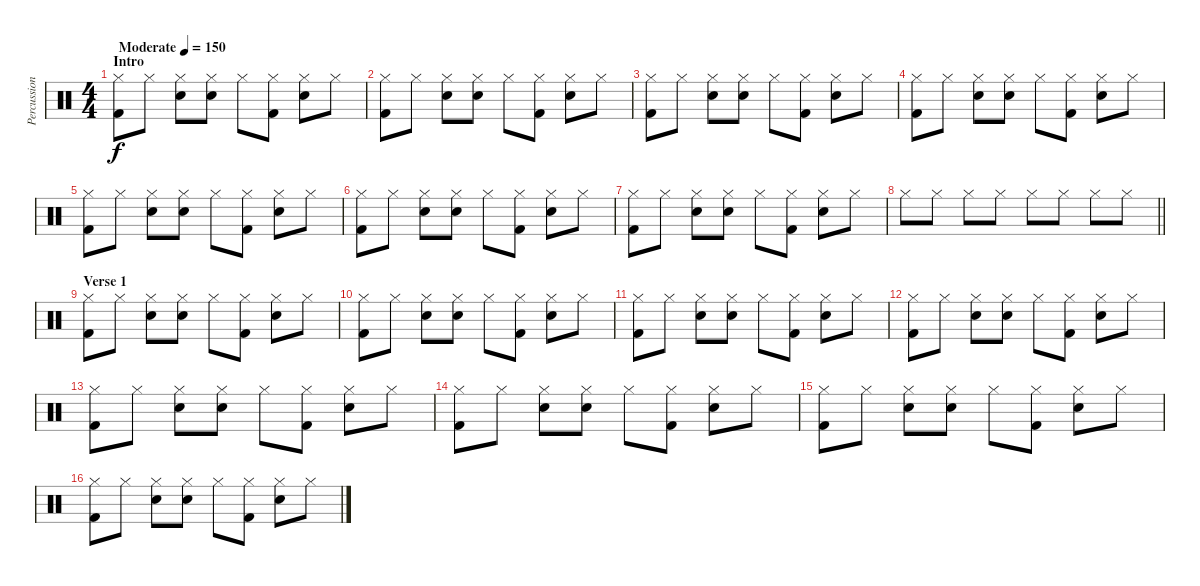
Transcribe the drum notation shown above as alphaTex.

\track ("Percussion" "Percussion") {instrument percussion}
\staff {score}
\articulation defaults
\ts (4 4)
\section ("" "Intro")
\tempo (150 "Moderate")
\clef neutral
\ks c
("Hi-Hat (closed)" "Kick (hit) 2").8{dy f} "Hi-Hat (closed)".8 ("Hi-Hat (closed)" "Snare (hit) 2").8 ("Hi-Hat (closed)" "Snare (hit) 2").8 "Hi-Hat (closed)".8 ("Hi-Hat (closed)" "Kick (hit) 2").8 ("Hi-Hat (closed)" "Snare (hit) 2").8 "Hi-Hat (closed)".8 |
("Hi-Hat (closed)" "Kick (hit) 2").8 "Hi-Hat (closed)".8 ("Hi-Hat (closed)" "Snare (hit) 2").8 ("Hi-Hat (closed)" "Snare (hit) 2").8 "Hi-Hat (closed)".8 ("Hi-Hat (closed)" "Kick (hit) 2").8 ("Hi-Hat (closed)" "Snare (hit) 2").8 "Hi-Hat (closed)".8 |
("Hi-Hat (closed)" "Kick (hit) 2").8 "Hi-Hat (closed)".8 ("Hi-Hat (closed)" "Snare (hit) 2").8 ("Hi-Hat (closed)" "Snare (hit) 2").8 "Hi-Hat (closed)".8 ("Hi-Hat (closed)" "Kick (hit) 2").8 ("Hi-Hat (closed)" "Snare (hit) 2").8 "Hi-Hat (closed)".8 |
("Hi-Hat (closed)" "Kick (hit) 2").8 "Hi-Hat (closed)".8 ("Hi-Hat (closed)" "Snare (hit) 2").8 ("Hi-Hat (closed)" "Snare (hit) 2").8 "Hi-Hat (closed)".8 ("Hi-Hat (closed)" "Kick (hit) 2").8 ("Hi-Hat (closed)" "Snare (hit) 2").8 "Hi-Hat (closed)".8 |
("Hi-Hat (closed)" "Kick (hit) 2").8 "Hi-Hat (closed)".8 ("Hi-Hat (closed)" "Snare (hit) 2").8 ("Hi-Hat (closed)" "Snare (hit) 2").8 "Hi-Hat (closed)".8 ("Hi-Hat (closed)" "Kick (hit) 2").8 ("Hi-Hat (closed)" "Snare (hit) 2").8 "Hi-Hat (closed)".8 |
("Hi-Hat (closed)" "Kick (hit) 2").8 "Hi-Hat (closed)".8 ("Hi-Hat (closed)" "Snare (hit) 2").8 ("Hi-Hat (closed)" "Snare (hit) 2").8 "Hi-Hat (closed)".8 ("Hi-Hat (closed)" "Kick (hit) 2").8 ("Hi-Hat (closed)" "Snare (hit) 2").8 "Hi-Hat (closed)".8 |
("Hi-Hat (closed)" "Kick (hit) 2").8 "Hi-Hat (closed)".8 ("Hi-Hat (closed)" "Snare (hit) 2").8 ("Hi-Hat (closed)" "Snare (hit) 2").8 "Hi-Hat (closed)".8 ("Hi-Hat (closed)" "Kick (hit) 2").8 ("Hi-Hat (closed)" "Snare (hit) 2").8 "Hi-Hat (closed)".8 |
\barLineRight lightlight "Hi-Hat (closed)".8 "Hi-Hat (closed)".8 "Hi-Hat (closed)".8 "Hi-Hat (closed)".8 "Hi-Hat (closed)".8 "Hi-Hat (closed)".8 "Hi-Hat (closed)".8 "Hi-Hat (closed)".8
|
\section ("" "Verse 1")
("Hi-Hat (closed)" "Kick (hit) 2").8 "Hi-Hat (closed)".8 ("Hi-Hat (closed)" "Snare (hit) 2").8 ("Hi-Hat (closed)" "Snare (hit) 2").8 "Hi-Hat (closed)".8 ("Hi-Hat (closed)" "Kick (hit) 2").8 ("Hi-Hat (closed)" "Snare (hit) 2").8 "Hi-Hat (closed)".8 |
("Hi-Hat (closed)" "Kick (hit) 2").8 "Hi-Hat (closed)".8 ("Hi-Hat (closed)" "Snare (hit) 2").8 ("Hi-Hat (closed)" "Snare (hit) 2").8 "Hi-Hat (closed)".8 ("Hi-Hat (closed)" "Kick (hit) 2").8 ("Hi-Hat (closed)" "Snare (hit) 2").8 "Hi-Hat (closed)".8 |
("Hi-Hat (closed)" "Kick (hit) 2").8 "Hi-Hat (closed)".8 ("Hi-Hat (closed)" "Snare (hit) 2").8 ("Hi-Hat (closed)" "Snare (hit) 2").8 "Hi-Hat (closed)".8 ("Hi-Hat (closed)" "Kick (hit) 2").8 ("Hi-Hat (closed)" "Snare (hit) 2").8 "Hi-Hat (closed)".8 |
("Hi-Hat (closed)" "Kick (hit) 2").8 "Hi-Hat (closed)".8 ("Hi-Hat (closed)" "Snare (hit) 2").8 ("Hi-Hat (closed)" "Snare (hit) 2").8 "Hi-Hat (closed)".8 ("Hi-Hat (closed)" "Kick (hit) 2").8 ("Hi-Hat (closed)" "Snare (hit) 2").8 "Hi-Hat (closed)".8 |
("Hi-Hat (closed)" "Kick (hit) 2").8 "Hi-Hat (closed)".8 ("Hi-Hat (closed)" "Snare (hit) 2").8 ("Hi-Hat (closed)" "Snare (hit) 2").8 "Hi-Hat (closed)".8 ("Hi-Hat (closed)" "Kick (hit) 2").8 ("Hi-Hat (closed)" "Snare (hit) 2").8 "Hi-Hat (closed)".8 |
("Hi-Hat (closed)" "Kick (hit) 2").8 "Hi-Hat (closed)".8 ("Hi-Hat (closed)" "Snare (hit) 2").8 ("Hi-Hat (closed)" "Snare (hit) 2").8 "Hi-Hat (closed)".8 ("Hi-Hat (closed)" "Kick (hit) 2").8 ("Hi-Hat (closed)" "Snare (hit) 2").8 "Hi-Hat (closed)".8 |
("Hi-Hat (closed)" "Kick (hit) 2").8 "Hi-Hat (closed)".8 ("Hi-Hat (closed)" "Snare (hit) 2").8 ("Hi-Hat (closed)" "Snare (hit) 2").8 "Hi-Hat (closed)".8 ("Hi-Hat (closed)" "Kick (hit) 2").8 ("Hi-Hat (closed)" "Snare (hit) 2").8 "Hi-Hat (closed)".8 |
("Hi-Hat (closed)" "Kick (hit) 2").8 "Hi-Hat (closed)".8 ("Hi-Hat (closed)" "Snare (hit) 2").8 ("Hi-Hat (closed)" "Snare (hit) 2").8 "Hi-Hat (closed)".8 ("Hi-Hat (closed)" "Kick (hit) 2").8 ("Hi-Hat (closed)" "Snare (hit) 2").8 "Hi-Hat (closed)".8
